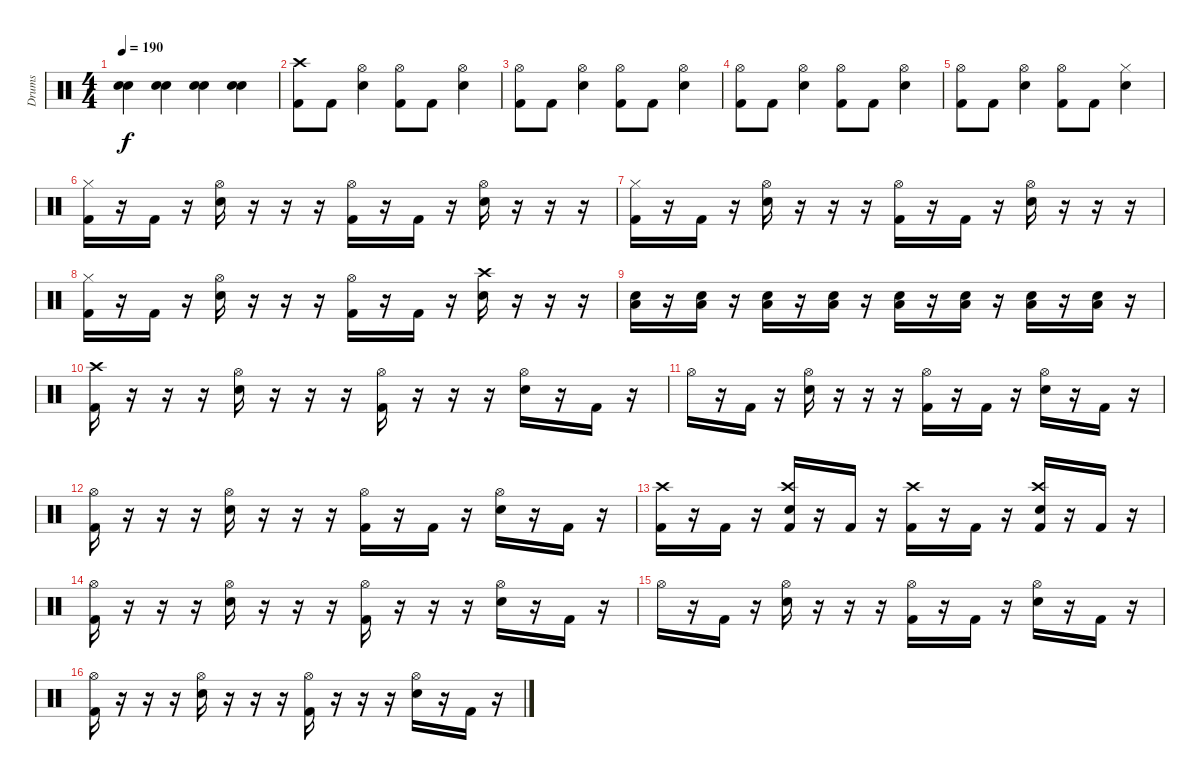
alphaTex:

\track ("Drums" "Drums") {instrument percussion}
\staff {score}
\articulation defaults
\ts (4 4)
\tempo 190
\clef neutral
\ks c
("Snare (hit) 2" "Electric Snare (hit)").4{dy f} ("Snare (hit) 2" "Electric Snare (hit)").4 ("Snare (hit) 2" "Electric Snare (hit)").4 ("Snare (hit) 2" "Electric Snare (hit)").4 |
("Crash high (hit)" "Kick (hit) 2").8 "Kick (hit) 2".8 ("Hi-Hat (open)" "Electric Snare (hit)").4 ("Hi-Hat (open)" "Kick (hit) 2").8 "Kick (hit) 2".8 ("Hi-Hat (open)" "Electric Snare (hit)").4 |
("Hi-Hat (open)" "Kick (hit) 2").8 "Kick (hit) 2".8 ("Hi-Hat (open)" "Electric Snare (hit)").4 ("Hi-Hat (open)" "Kick (hit) 2").8 "Kick (hit) 2".8 ("Hi-Hat (open)" "Electric Snare (hit)").4 |
("Hi-Hat (open)" "Kick (hit) 2").8 "Kick (hit) 2".8 ("Hi-Hat (open)" "Electric Snare (hit)").4 ("Hi-Hat (open)" "Kick (hit) 2").8 "Kick (hit) 2".8 ("Hi-Hat (open)" "Electric Snare (hit)").4 |
("Hi-Hat (open)" "Kick (hit) 2").8 "Kick (hit) 2".8 ("Hi-Hat (open)" "Electric Snare (hit)").4 ("Hi-Hat (open)" "Kick (hit) 2").8 "Kick (hit) 2".8 ("Hi-Hat (closed)" "Electric Snare (hit)").4 |
("Hi-Hat (closed)" "Kick (hit) 2").16 r.16 "Kick (hit) 2".16 r.16 ("Hi-Hat (open)" "Electric Snare (hit)").16 r.16 r.16 r.16 ("Hi-Hat (open)" "Kick (hit) 2").16 r.16 "Kick (hit) 2".16 r.16 ("Hi-Hat (open)" "Electric Snare (hit)").16 r.16 r.16 r.16 |
("Hi-Hat (closed)" "Kick (hit) 2").16 r.16 "Kick (hit) 2".16 r.16 ("Hi-Hat (open)" "Electric Snare (hit)").16 r.16 r.16 r.16 ("Hi-Hat (open)" "Kick (hit) 2").16 r.16 "Kick (hit) 2".16 r.16 ("Hi-Hat (open)" "Electric Snare (hit)").16 r.16 r.16 r.16 |
("Hi-Hat (closed)" "Kick (hit) 2").16 r.16 "Kick (hit) 2".16 r.16 ("Hi-Hat (open)" "Electric Snare (hit)").16 r.16 r.16 r.16 ("Hi-Hat (open)" "Kick (hit) 2").16 r.16 "Kick (hit) 2".16 r.16 ("Crash high (hit)" "Electric Snare (hit)").16 r.16 r.16 r.16 |
("Low Floor Tom (hit)" "Electric Snare (hit)").16 r.16 ("Low Floor Tom (hit)" "Electric Snare (hit)").16 r.16 ("Low Floor Tom (hit)" "Electric Snare (hit)").16 r.16 ("Low Floor Tom (hit)" "Electric Snare (hit)").16 r.16 ("Low Floor Tom (hit)" "Electric Snare (hit)").16 r.16 ("Low Floor Tom (hit)" "Electric Snare (hit)").16 r.16 ("Low Floor Tom (hit)" "Electric Snare (hit)").16 r.16 ("Low Floor Tom (hit)" "Electric Snare (hit)").16 r.16 |
("Crash high (hit)" "Kick (hit) 2").16 r.16 r.16 r.16 ("Hi-Hat (open)" "Electric Snare (hit)").16 r.16 r.16 r.16 ("Hi-Hat (open)" "Kick (hit) 2").16 r.16 r.16 r.16 ("Hi-Hat (open)" "Electric Snare (hit)").16 r.16 "Kick (hit) 2".16 r.16 |
"Hi-Hat (open)".16 r.16 "Kick (hit) 2".16 r.16 ("Hi-Hat (open)" "Electric Snare (hit)").16 r.16 r.16 r.16 ("Hi-Hat (open)" "Kick (hit) 2").16 r.16 "Kick (hit) 2".16 r.16 ("Hi-Hat (open)" "Electric Snare (hit)").16 r.16 "Kick (hit) 2".16 r.16 |
("Hi-Hat (open)" "Kick (hit) 2").16 r.16 r.16 r.16 ("Hi-Hat (open)" "Electric Snare (hit)").16 r.16 r.16 r.16 ("Hi-Hat (open)" "Kick (hit) 2").16 r.16 "Kick (hit) 2".16 r.16 ("Hi-Hat (open)" "Electric Snare (hit)").16 r.16 "Kick (hit) 2".16 r.16 |
("Crash high (hit)" "Kick (hit) 2").16 r.16 "Kick (hit) 2".16 r.16 ("Crash high (hit)" "Electric Snare (hit)" "Kick (hit) 2").16 r.16 "Kick (hit) 2".16 r.16 ("Crash high (hit)" "Kick (hit) 2").16 r.16 "Kick (hit) 2".16 r.16 ("Crash high (hit)" "Electric Snare (hit)" "Kick (hit) 2").16 r.16 "Kick (hit) 2".16 r.16 |
("Hi-Hat (open)" "Kick (hit) 2").16 r.16 r.16 r.16 ("Hi-Hat (open)" "Electric Snare (hit)").16 r.16 r.16 r.16 ("Hi-Hat (open)" "Kick (hit) 2").16 r.16 r.16 r.16 ("Hi-Hat (open)" "Electric Snare (hit)").16 r.16 "Kick (hit) 2".16 r.16 |
"Hi-Hat (open)".16 r.16 "Kick (hit) 2".16 r.16 ("Hi-Hat (open)" "Electric Snare (hit)").16 r.16 r.16 r.16 ("Hi-Hat (open)" "Kick (hit) 2").16 r.16 "Kick (hit) 2".16 r.16 ("Hi-Hat (open)" "Electric Snare (hit)").16 r.16 "Kick (hit) 2".16 r.16 |
("Hi-Hat (open)" "Kick (hit) 2").16 r.16 r.16 r.16 ("Hi-Hat (open)" "Electric Snare (hit)").16 r.16 r.16 r.16 ("Hi-Hat (open)" "Kick (hit) 2").16 r.16 r.16 r.16 ("Hi-Hat (open)" "Electric Snare (hit)").16 r.16 "Kick (hit) 2".16 r.16
